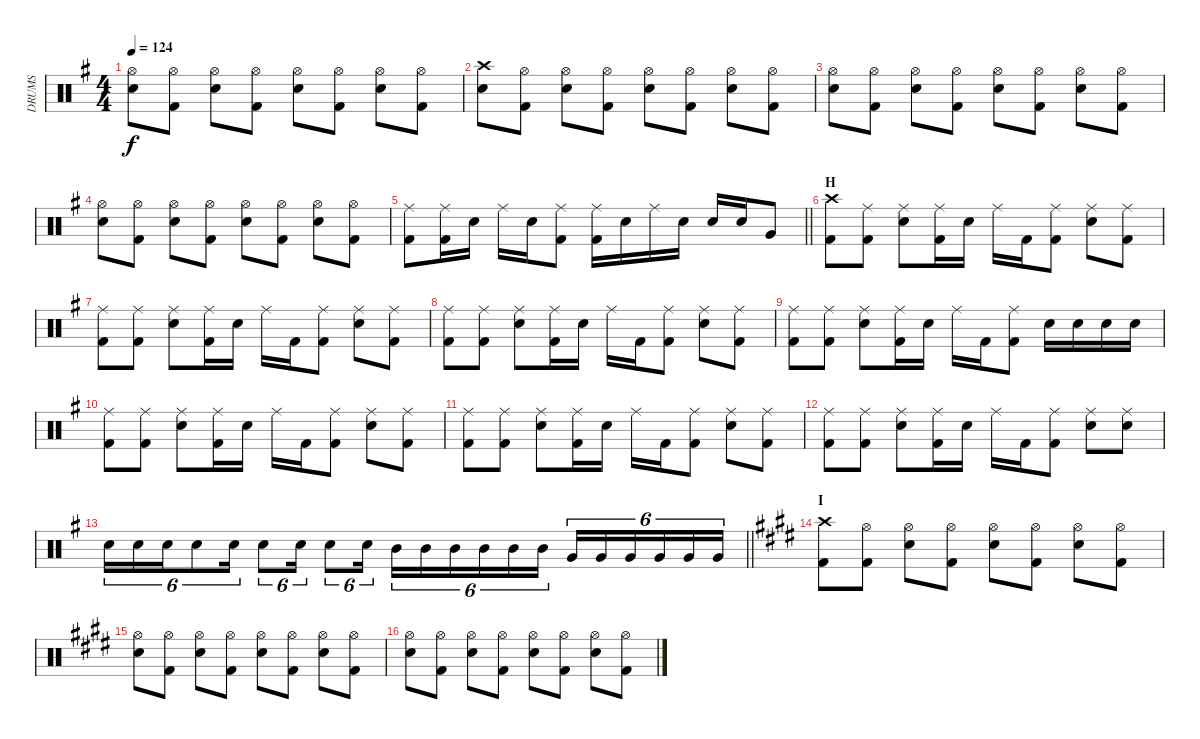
\track ("DRUMS" "DRUMS") {instrument percussion}
\staff {score}
\articulation defaults
\ts (4 4)
\tempo 124
\clef neutral
\ks g
("Hi-Hat (open)" "Snare (hit) 2").8{dy f} ("Hi-Hat (open)" "Kick (hit) 2").8 ("Hi-Hat (open)" "Snare (hit) 2").8 ("Hi-Hat (open)" "Kick (hit) 2").8 ("Hi-Hat (open)" "Snare (hit) 2").8 ("Hi-Hat (open)" "Kick (hit) 2").8 ("Hi-Hat (open)" "Snare (hit) 2").8 ("Hi-Hat (open)" "Kick (hit) 2").8 |
("Crash high (hit)" "Snare (hit) 2").8 ("Hi-Hat (open)" "Kick (hit) 2").8 ("Hi-Hat (open)" "Snare (hit) 2").8 ("Hi-Hat (open)" "Kick (hit) 2").8 ("Hi-Hat (open)" "Snare (hit) 2").8 ("Hi-Hat (open)" "Kick (hit) 2").8 ("Hi-Hat (open)" "Snare (hit) 2").8 ("Hi-Hat (open)" "Kick (hit) 2").8 |
("Hi-Hat (open)" "Snare (hit) 2").8 ("Hi-Hat (open)" "Kick (hit) 2").8 ("Hi-Hat (open)" "Snare (hit) 2").8 ("Hi-Hat (open)" "Kick (hit) 2").8 ("Hi-Hat (open)" "Snare (hit) 2").8 ("Hi-Hat (open)" "Kick (hit) 2").8 ("Hi-Hat (open)" "Snare (hit) 2").8 ("Hi-Hat (open)" "Kick (hit) 2").8 |
("Hi-Hat (open)" "Snare (hit) 2").8 ("Hi-Hat (open)" "Kick (hit) 2").8 ("Hi-Hat (open)" "Snare (hit) 2").8 ("Hi-Hat (open)" "Kick (hit) 2").8 ("Hi-Hat (open)" "Snare (hit) 2").8 ("Hi-Hat (open)" "Kick (hit) 2").8 ("Hi-Hat (open)" "Snare (hit) 2").8 ("Hi-Hat (open)" "Kick (hit) 2").8 |
\barLineRight lightlight
("Ride (middle)" "Kick (hit) 2").8 ("Ride (middle)" "Kick (hit) 2").16 "Snare (hit) 2".16 "Ride (middle)".16 "Snare (hit) 2".16 ("Ride (middle)" "Kick (hit) 2").8 ("Ride (middle)" "Kick (hit) 2").16 "Snare (hit) 2".16 "Ride (middle)".16 "Snare (hit) 2".16 "Snare (hit) 2".16 "Snare (hit) 2".16 "Very Low Tom (hit)".8 |
\section ("" "H")
("Crash high (hit)" "Kick (hit) 2").8 ("Ride (middle)" "Kick (hit) 2").8 ("Ride (middle)" "Snare (hit) 2").8 ("Ride (middle)" "Kick (hit) 2").16 "Snare (hit) 2".16 "Ride (middle)".16 "Kick (hit) 2".16 ("Ride (middle)" "Kick (hit) 2").8 ("Ride (middle)" "Snare (hit) 2").8 ("Ride (middle)" "Kick (hit) 2").8 |
("Ride (middle)" "Kick (hit) 2").8 ("Ride (middle)" "Kick (hit) 2").8 ("Ride (middle)" "Snare (hit) 2").8 ("Ride (middle)" "Kick (hit) 2").16 "Snare (hit) 2".16 "Ride (middle)".16 "Kick (hit) 2".16 ("Ride (middle)" "Kick (hit) 2").8 ("Ride (middle)" "Snare (hit) 2").8 ("Ride (middle)" "Kick (hit) 2").8 |
("Ride (middle)" "Kick (hit) 2").8 ("Ride (middle)" "Kick (hit) 2").8 ("Ride (middle)" "Snare (hit) 2").8 ("Ride (middle)" "Kick (hit) 2").16 "Snare (hit) 2".16 "Ride (middle)".16 "Kick (hit) 2".16 ("Ride (middle)" "Kick (hit) 2").8 ("Ride (middle)" "Snare (hit) 2").8 ("Ride (middle)" "Kick (hit) 2").8 |
("Ride (middle)" "Kick (hit) 2").8 ("Ride (middle)" "Kick (hit) 2").8 ("Ride (middle)" "Snare (hit) 2").8 ("Ride (middle)" "Kick (hit) 2").16 "Snare (hit) 2".16 "Ride (middle)".16 "Kick (hit) 2".16 ("Ride (middle)" "Kick (hit) 2").8 "Snare (hit) 2".16 "Snare (hit) 2".16 "Snare (hit) 2".16 "Snare (hit) 2".16 |
("Ride (middle)" "Kick (hit) 2").8 ("Ride (middle)" "Kick (hit) 2").8 ("Ride (middle)" "Snare (hit) 2").8 ("Ride (middle)" "Kick (hit) 2").16 "Snare (hit) 2".16 "Ride (middle)".16 "Kick (hit) 2".16 ("Ride (middle)" "Kick (hit) 2").8 ("Ride (middle)" "Snare (hit) 2").8 ("Ride (middle)" "Kick (hit) 2").8 |
("Ride (middle)" "Kick (hit) 2").8 ("Ride (middle)" "Kick (hit) 2").8 ("Ride (middle)" "Snare (hit) 2").8 ("Ride (middle)" "Kick (hit) 2").16 "Snare (hit) 2".16 "Ride (middle)".16 "Kick (hit) 2".16 ("Ride (middle)" "Kick (hit) 2").8 ("Ride (middle)" "Snare (hit) 2").8 ("Ride (middle)" "Kick (hit) 2").8 |
("Ride (middle)" "Kick (hit) 2").8 ("Ride (middle)" "Kick (hit) 2").8 ("Ride (middle)" "Snare (hit) 2").8 ("Ride (middle)" "Kick (hit) 2").16 "Snare (hit) 2".16 "Ride (middle)".16 "Kick (hit) 2".16 ("Ride (middle)" "Kick (hit) 2").8 ("Ride (middle)" "Snare (hit) 2").8 ("Ride (middle)" "Snare (hit) 2").8 |
\barLineRight lightlight "Snare (hit) 2".16{tu (6 4)} "Snare (hit) 2".16{tu (6 4)} "Snare (hit) 2".16{tu (6 4)} "Snare (hit) 2".8{tu (6 4)} "Snare (hit) 2".16{tu (6 4)} "Snare (hit) 2".8{tu (6 4)} "Snare (hit) 2".16{tu (6 4)} "Snare (hit) 2".8{tu (6 4)} "Snare (hit) 2".16{tu (6 4)} "Mid Tom (hit)".16{tu (6 4)} "Mid Tom (hit)".16{tu (6 4)} "Mid Tom (hit)".16{tu (6 4)} "Mid Tom (hit)".16{tu (6 4)} "Mid Tom (hit)".16{tu (6 4)} "Mid Tom (hit)".16{tu (6 4)} "Very Low Tom (hit)".16{tu (6 4)} "Very Low Tom (hit)".16{tu (6 4)} "Very Low Tom (hit)".16{tu (6 4)} "Very Low Tom (hit)".16{tu (6 4)} "Very Low Tom (hit)".16{tu (6 4)} "Very Low Tom (hit)".16{tu (6 4)}
|
\section ("" "I")
\ks e
("Crash high (hit)" "Kick (hit) 2").8 ("Hi-Hat (open)" "Kick (hit) 2").8 ("Hi-Hat (open)" "Snare (hit) 2").8 ("Hi-Hat (open)" "Kick (hit) 2").8 ("Hi-Hat (open)" "Snare (hit) 2").8 ("Hi-Hat (open)" "Kick (hit) 2").8 ("Hi-Hat (open)" "Snare (hit) 2").8 ("Hi-Hat (open)" "Kick (hit) 2").8 |
("Hi-Hat (open)" "Snare (hit) 2").8 ("Hi-Hat (open)" "Kick (hit) 2").8 ("Hi-Hat (open)" "Snare (hit) 2").8 ("Hi-Hat (open)" "Kick (hit) 2").8 ("Hi-Hat (open)" "Snare (hit) 2").8 ("Hi-Hat (open)" "Kick (hit) 2").8 ("Hi-Hat (open)" "Snare (hit) 2").8 ("Hi-Hat (open)" "Kick (hit) 2").8 |
("Hi-Hat (open)" "Snare (hit) 2").8 ("Hi-Hat (open)" "Kick (hit) 2").8 ("Hi-Hat (open)" "Snare (hit) 2").8 ("Hi-Hat (open)" "Kick (hit) 2").8 ("Hi-Hat (open)" "Snare (hit) 2").8 ("Hi-Hat (open)" "Kick (hit) 2").8 ("Hi-Hat (open)" "Snare (hit) 2").8 ("Hi-Hat (open)" "Kick (hit) 2").8
